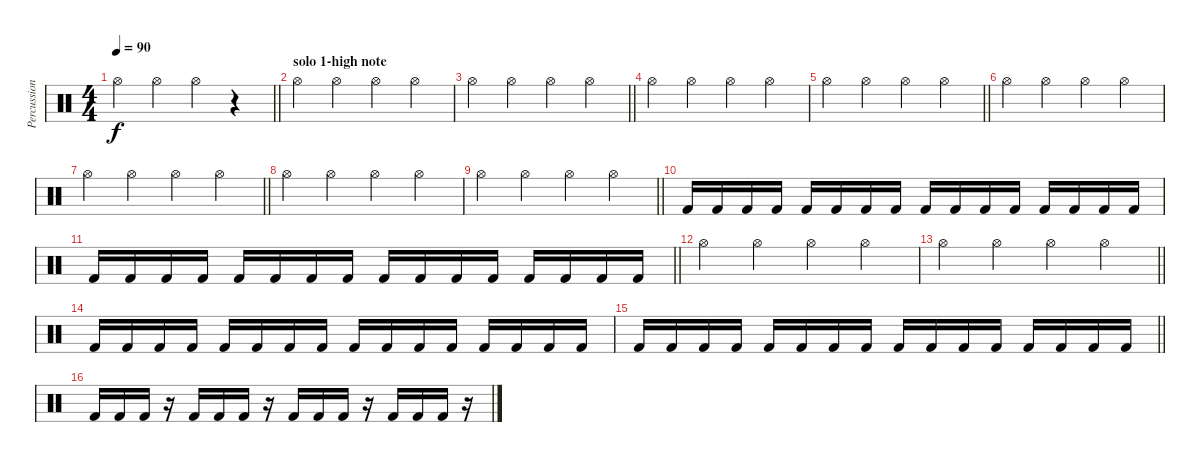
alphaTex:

\track ("Percussion" "Percussion") {instrument percussion}
\staff {score}
\articulation defaults
\ts (4 4)
\tempo 90
\clef neutral
\barLineRight lightlight
\ks c "Hi-Hat (open)".4{dy f} "Hi-Hat (open)".4 "Hi-Hat (open)".4
r.4 |
\section ("" "solo 1-high note")
"Hi-Hat (open)".4 "Hi-Hat (open)".4 "Hi-Hat (open)".4 "Hi-Hat (open)".4 |
\barLineRight lightlight "Hi-Hat (open)".4 "Hi-Hat (open)".4 "Hi-Hat (open)".4 "Hi-Hat (open)".4
|
"Hi-Hat (open)".4 "Hi-Hat (open)".4 "Hi-Hat (open)".4 "Hi-Hat (open)".4 |
\barLineRight lightlight "Hi-Hat (open)".4 "Hi-Hat (open)".4 "Hi-Hat (open)".4 "Hi-Hat (open)".4
|
"Hi-Hat (open)".4 "Hi-Hat (open)".4 "Hi-Hat (open)".4 "Hi-Hat (open)".4 |
\barLineRight lightlight "Hi-Hat (open)".4 "Hi-Hat (open)".4 "Hi-Hat (open)".4 "Hi-Hat (open)".4
|
"Hi-Hat (open)".4 "Hi-Hat (open)".4 "Hi-Hat (open)".4 "Hi-Hat (open)".4 |
\barLineRight lightlight "Hi-Hat (open)".4 "Hi-Hat (open)".4 "Hi-Hat (open)".4 "Hi-Hat (open)".4
|
"Kick (hit) 2".16 "Kick (hit) 2".16 "Kick (hit) 2".16 "Kick (hit) 2".16 "Kick (hit) 2".16 "Kick (hit) 2".16 "Kick (hit) 2".16 "Kick (hit) 2".16 "Kick (hit) 2".16 "Kick (hit) 2".16 "Kick (hit) 2".16 "Kick (hit) 2".16 "Kick (hit) 2".16 "Kick (hit) 2".16 "Kick (hit) 2".16 "Kick (hit) 2".16 |
\barLineRight lightlight "Kick (hit) 2".16 "Kick (hit) 2".16 "Kick (hit) 2".16 "Kick (hit) 2".16 "Kick (hit) 2".16 "Kick (hit) 2".16 "Kick (hit) 2".16 "Kick (hit) 2".16 "Kick (hit) 2".16 "Kick (hit) 2".16 "Kick (hit) 2".16 "Kick (hit) 2".16 "Kick (hit) 2".16 "Kick (hit) 2".16 "Kick (hit) 2".16 "Kick (hit) 2".16
|
"Hi-Hat (open)".4 "Hi-Hat (open)".4 "Hi-Hat (open)".4 "Hi-Hat (open)".4 |
\barLineRight lightlight "Hi-Hat (open)".4 "Hi-Hat (open)".4 "Hi-Hat (open)".4 "Hi-Hat (open)".4
|
"Kick (hit) 2".16 "Kick (hit) 2".16 "Kick (hit) 2".16 "Kick (hit) 2".16 "Kick (hit) 2".16 "Kick (hit) 2".16 "Kick (hit) 2".16 "Kick (hit) 2".16 "Kick (hit) 2".16 "Kick (hit) 2".16 "Kick (hit) 2".16 "Kick (hit) 2".16 "Kick (hit) 2".16 "Kick (hit) 2".16 "Kick (hit) 2".16 "Kick (hit) 2".16 |
\barLineRight lightlight "Kick (hit) 2".16 "Kick (hit) 2".16 "Kick (hit) 2".16 "Kick (hit) 2".16 "Kick (hit) 2".16 "Kick (hit) 2".16 "Kick (hit) 2".16 "Kick (hit) 2".16 "Kick (hit) 2".16 "Kick (hit) 2".16 "Kick (hit) 2".16 "Kick (hit) 2".16 "Kick (hit) 2".16 "Kick (hit) 2".16 "Kick (hit) 2".16 "Kick (hit) 2".16
|
"Kick (hit) 2".16 "Kick (hit) 2".16 "Kick (hit) 2".16 r.16 "Kick (hit) 2".16 "Kick (hit) 2".16 "Kick (hit) 2".16 r.16 "Kick (hit) 2".16 "Kick (hit) 2".16 "Kick (hit) 2".16 r.16 "Kick (hit) 2".16 "Kick (hit) 2".16 "Kick (hit) 2".16 r.16
